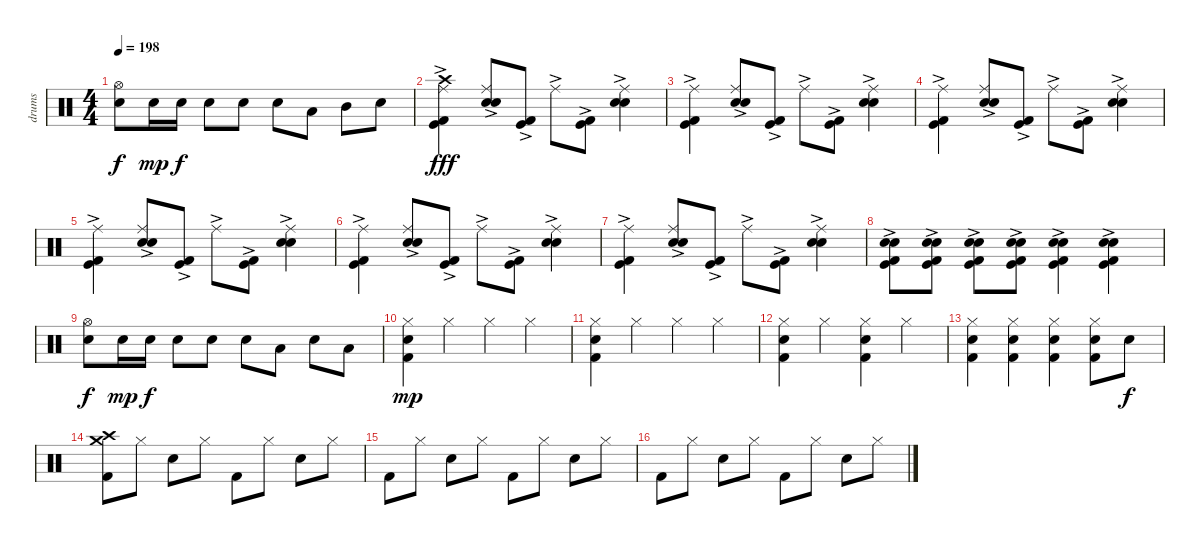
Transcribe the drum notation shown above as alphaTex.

\track ("drums" "drums") {instrument percussion}
\staff {score}
\articulation defaults
\ts (4 4)
\tempo 198
\clef neutral
\ks c
("Hi-Hat (open)" "Electric Snare (hit)").8{dy f} "Electric Snare (hit)".16{dy mp} "Electric Snare (hit)".16{dy f} "Electric Snare (hit)".8 "Electric Snare (hit)".8 "Electric Snare (hit)".8 "Low Tom (hit)".8{balance 13} "Mid Tom (hit)".8{balance 8} "Electric Snare (hit)".8{balance 8} |
("Ride (middle)"{ac} "Crash high (hit)"{ac} "Kick (hit)"{ac} "Kick (hit) 2"{ac}).4{dy fff} ("Ride (middle)"{ac} "Electric Snare (hit)"{ac} "Snare (hit) 2"{ac}).8 ("Kick (hit)"{ac} "Kick (hit) 2"{ac}).8 "Ride (middle)"{ac}.8 ("Kick (hit)"{ac} "Kick (hit) 2"{ac}).8 ("Ride (middle)"{ac} "Electric Snare (hit)"{ac} "Snare (hit) 2"{ac}).4 |
("Ride (middle)"{ac} "Kick (hit)"{ac} "Kick (hit) 2"{ac}).4 ("Ride (middle)"{ac} "Electric Snare (hit)"{ac} "Snare (hit) 2"{ac}).8 ("Kick (hit)"{ac} "Kick (hit) 2"{ac}).8 "Ride (middle)"{ac}.8 ("Kick (hit)"{ac} "Kick (hit) 2"{ac}).8 ("Ride (middle)"{ac} "Electric Snare (hit)"{ac} "Snare (hit) 2"{ac}).4 |
("Ride (middle)"{ac} "Kick (hit)"{ac} "Kick (hit) 2"{ac}).4 ("Ride (middle)"{ac} "Electric Snare (hit)"{ac} "Snare (hit) 2"{ac}).8 ("Kick (hit)"{ac} "Kick (hit) 2"{ac}).8 "Ride (middle)"{ac}.8 ("Kick (hit)"{ac} "Kick (hit) 2"{ac}).8 ("Ride (middle)"{ac} "Electric Snare (hit)"{ac} "Snare (hit) 2"{ac}).4 |
("Ride (middle)"{ac} "Kick (hit)"{ac} "Kick (hit) 2"{ac}).4 ("Ride (middle)"{ac} "Electric Snare (hit)"{ac} "Snare (hit) 2"{ac}).8 ("Kick (hit)"{ac} "Kick (hit) 2"{ac}).8 "Ride (middle)"{ac}.8 ("Kick (hit)"{ac} "Kick (hit) 2"{ac}).8 ("Ride (middle)"{ac} "Electric Snare (hit)"{ac} "Snare (hit) 2"{ac}).4 |
("Ride (middle)"{ac} "Kick (hit)"{ac} "Kick (hit) 2"{ac}).4 ("Ride (middle)"{ac} "Electric Snare (hit)"{ac} "Snare (hit) 2"{ac}).8 ("Kick (hit)"{ac} "Kick (hit) 2"{ac}).8 "Ride (middle)"{ac}.8 ("Kick (hit)"{ac} "Kick (hit) 2"{ac}).8 ("Ride (middle)"{ac} "Electric Snare (hit)"{ac} "Snare (hit) 2"{ac}).4 |
("Ride (middle)"{ac} "Kick (hit)"{ac} "Kick (hit) 2"{ac}).4 ("Ride (middle)"{ac} "Electric Snare (hit)"{ac} "Snare (hit) 2"{ac}).8 ("Kick (hit)"{ac} "Kick (hit) 2"{ac}).8 "Ride (middle)"{ac}.8 ("Kick (hit)"{ac} "Kick (hit) 2"{ac}).8 ("Ride (middle)"{ac} "Electric Snare (hit)"{ac} "Snare (hit) 2"{ac}).4 |
("Snare (hit) 2"{ac} "Electric Snare (hit)"{ac} "Kick (hit) 2"{ac} "Kick (hit)"{ac}).8 ("Snare (hit) 2"{ac} "Electric Snare (hit)"{ac} "Kick (hit) 2"{ac} "Kick (hit)"{ac}).8 ("Snare (hit) 2"{ac} "Electric Snare (hit)"{ac} "Kick (hit) 2"{ac} "Kick (hit)"{ac}).8 ("Snare (hit) 2"{ac} "Electric Snare (hit)"{ac} "Kick (hit) 2"{ac} "Kick (hit)"{ac}).8 ("Snare (hit) 2"{ac} "Electric Snare (hit)"{ac} "Kick (hit) 2" "Kick (hit)"{ac}).4 ("Snare (hit) 2"{ac} "Electric Snare (hit)"{ac} "Kick (hit) 2"{ac} "Kick (hit)"{ac}).4 |
("Hi-Hat (open)" "Electric Snare (hit)").8{dy f} "Electric Snare (hit)".16{dy mp} "Electric Snare (hit)".16{dy f} "Electric Snare (hit)".8 "Electric Snare (hit)".8 "Electric Snare (hit)".8 "Low Tom (hit)".8{balance 12} "Electric Snare (hit)".8{balance 8} "Low Floor Tom (hit)".8{balance 8} |
("Hi-Hat (closed)" "Electric Snare (hit)" "Kick (hit) 2").4{dy mp} "Hi-Hat (closed)".4 "Hi-Hat (closed)".4 "Hi-Hat (closed)".4 |
("Hi-Hat (closed)" "Electric Snare (hit)" "Kick (hit) 2").4 "Hi-Hat (closed)".4 "Hi-Hat (closed)".4 "Hi-Hat (closed)".4 |
("Hi-Hat (closed)" "Electric Snare (hit)" "Kick (hit) 2").4 "Hi-Hat (closed)".4 ("Hi-Hat (closed)" "Electric Snare (hit)" "Kick (hit) 2").4 "Hi-Hat (closed)".4 |
("Hi-Hat (closed)" "Electric Snare (hit)" "Kick (hit) 2").4 ("Hi-Hat (closed)" "Electric Snare (hit)" "Kick (hit) 2").4 ("Hi-Hat (closed)" "Electric Snare (hit)" "Kick (hit) 2").4 ("Hi-Hat (closed)" "Electric Snare (hit)" "Kick (hit) 2").8 "Electric Snare (hit)".8{dy f} |
("Crash high (hit)" "Crash medium (hit)" "Kick (hit) 2").8 "Hi-Hat (closed)".8 "Snare (hit) 2".8 "Hi-Hat (closed)".8 "Kick (hit) 2".8 "Hi-Hat (closed)".8 "Snare (hit) 2".8 "Hi-Hat (closed)".8 |
"Kick (hit) 2".8 "Hi-Hat (closed)".8 "Snare (hit) 2".8 "Hi-Hat (closed)".8 "Kick (hit) 2".8 "Hi-Hat (closed)".8 "Snare (hit) 2".8 "Hi-Hat (closed)".8 |
"Kick (hit) 2".8 "Hi-Hat (closed)".8 "Snare (hit) 2".8 "Hi-Hat (closed)".8 "Kick (hit) 2".8 "Hi-Hat (closed)".8 "Snare (hit) 2".8 "Hi-Hat (closed)".8
